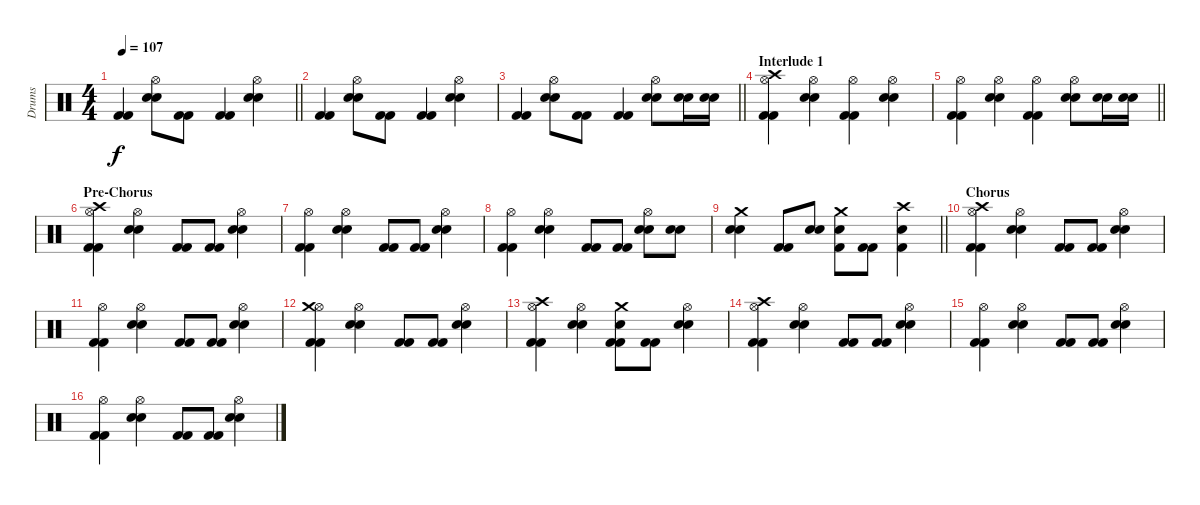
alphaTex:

\track ("Drums" "Drums") {instrument percussion}
\staff {score}
\articulation defaults
\ts (4 4)
\tempo 107
\clef neutral
\barLineRight lightlight
\ks c
("Kick (hit) 2" "Kick (hit) 2").4{dy f} ("Snare (hit) 2" "Snare (hit) 2" "Hi-Hat (open)").8 ("Kick (hit) 2" "Kick (hit) 2").8 ("Kick (hit) 2" "Kick (hit) 2").4 ("Snare (hit) 2" "Snare (hit) 2" "Hi-Hat (open)").4 |
("Kick (hit) 2" "Kick (hit) 2").4 ("Snare (hit) 2" "Snare (hit) 2" "Hi-Hat (open)").8 ("Kick (hit) 2" "Kick (hit) 2").8 ("Kick (hit) 2" "Kick (hit) 2").4 ("Snare (hit) 2" "Snare (hit) 2" "Hi-Hat (open)").4 |
\barLineRight lightlight
("Kick (hit) 2" "Kick (hit) 2").4 ("Snare (hit) 2" "Snare (hit) 2" "Hi-Hat (open)").8 ("Kick (hit) 2" "Kick (hit) 2").8 ("Kick (hit) 2" "Kick (hit) 2").4 ("Snare (hit) 2" "Snare (hit) 2" "Hi-Hat (open)").8 ("Snare (hit) 2" "Snare (hit) 2").16 ("Snare (hit) 2" "Snare (hit) 2").16 |
\section ("" "Interlude 1")
("Kick (hit) 2" "Kick (hit) 2" "Hi-Hat (open)" "Crash high (hit)").4 ("Snare (hit) 2" "Snare (hit) 2" "Hi-Hat (open)").4 ("Kick (hit) 2" "Kick (hit) 2" "Hi-Hat (open)").4 ("Snare (hit) 2" "Snare (hit) 2" "Hi-Hat (open)").4 |
\barLineRight lightlight
("Kick (hit) 2" "Kick (hit) 2" "Hi-Hat (open)").4 ("Snare (hit) 2" "Snare (hit) 2" "Hi-Hat (open)").4 ("Kick (hit) 2" "Kick (hit) 2" "Hi-Hat (open)").4 ("Snare (hit) 2" "Snare (hit) 2" "Hi-Hat (open)").8 ("Snare (hit) 2" "Snare (hit) 2").16 ("Snare (hit) 2" "Snare (hit) 2").16 |
\section ("" "Pre-Chorus")
("Kick (hit) 2" "Kick (hit) 2" "Hi-Hat (open)" "Crash high (hit)").4 ("Snare (hit) 2" "Snare (hit) 2" "Hi-Hat (open)").4 ("Kick (hit) 2" "Kick (hit) 2").8 ("Kick (hit) 2" "Kick (hit) 2").8 ("Snare (hit) 2" "Snare (hit) 2" "Hi-Hat (open)").4 |
("Kick (hit) 2" "Kick (hit) 2" "Hi-Hat (open)").4 ("Snare (hit) 2" "Snare (hit) 2" "Hi-Hat (open)").4 ("Kick (hit) 2" "Kick (hit) 2").8 ("Kick (hit) 2" "Kick (hit) 2").8 ("Snare (hit) 2" "Snare (hit) 2" "Hi-Hat (open)").4 |
("Kick (hit) 2" "Kick (hit) 2" "Hi-Hat (open)").4 ("Snare (hit) 2" "Snare (hit) 2" "Hi-Hat (open)").4 ("Kick (hit) 2" "Kick (hit) 2").8 ("Kick (hit) 2" "Kick (hit) 2").8 ("Snare (hit) 2" "Snare (hit) 2" "Hi-Hat (open)").8 ("Snare (hit) 2" "Snare (hit) 2").8 |
\barLineRight lightlight
("Snare (hit) 2" "Snare (hit) 2" "Crash medium (hit)").4 ("Kick (hit) 2" "Kick (hit) 2").8 ("Snare (hit) 2" "Snare (hit) 2").8 ("Kick (hit) 2" "Snare (hit) 2" "Crash medium (hit)").8 ("Kick (hit) 2" "Kick (hit) 2").8 ("Kick (hit) 2" "Snare (hit) 2" "Crash high (hit)").4 |
\section ("" "Chorus")
("Kick (hit) 2" "Kick (hit) 2" "Hi-Hat (open)" "Crash high (hit)").4 ("Snare (hit) 2" "Snare (hit) 2" "Hi-Hat (open)").4 ("Kick (hit) 2" "Kick (hit) 2").8 ("Kick (hit) 2" "Kick (hit) 2").8 ("Snare (hit) 2" "Snare (hit) 2" "Hi-Hat (open)").4 |
("Kick (hit) 2" "Kick (hit) 2" "Hi-Hat (open)").4 ("Snare (hit) 2" "Snare (hit) 2" "Hi-Hat (open)").4 ("Kick (hit) 2" "Kick (hit) 2").8 ("Kick (hit) 2" "Kick (hit) 2").8 ("Snare (hit) 2" "Snare (hit) 2" "Hi-Hat (open)").4 |
("Kick (hit) 2" "Kick (hit) 2" "Hi-Hat (open)" "Crash medium (hit)").4 ("Snare (hit) 2" "Snare (hit) 2" "Hi-Hat (open)").4 ("Kick (hit) 2" "Kick (hit) 2").8 ("Kick (hit) 2" "Kick (hit) 2").8 ("Snare (hit) 2" "Snare (hit) 2" "Hi-Hat (open)").4 |
("Kick (hit) 2" "Kick (hit) 2" "Hi-Hat (open)" "Crash high (hit)").4 ("Snare (hit) 2" "Snare (hit) 2" "Hi-Hat (open)").4 ("Kick (hit) 2" "Kick (hit) 2" "Crash medium (hit)" "Snare (hit) 2").8 ("Kick (hit) 2" "Kick (hit) 2").8 ("Snare (hit) 2" "Snare (hit) 2" "Hi-Hat (open)").4 |
("Kick (hit) 2" "Kick (hit) 2" "Hi-Hat (open)" "Crash high (hit)").4 ("Snare (hit) 2" "Snare (hit) 2" "Hi-Hat (open)").4 ("Kick (hit) 2" "Kick (hit) 2").8 ("Kick (hit) 2" "Kick (hit) 2").8 ("Snare (hit) 2" "Snare (hit) 2" "Hi-Hat (open)").4 |
("Kick (hit) 2" "Kick (hit) 2" "Hi-Hat (open)").4 ("Snare (hit) 2" "Snare (hit) 2" "Hi-Hat (open)").4 ("Kick (hit) 2" "Kick (hit) 2").8 ("Kick (hit) 2" "Kick (hit) 2").8 ("Snare (hit) 2" "Snare (hit) 2" "Hi-Hat (open)").4 |
("Kick (hit) 2" "Kick (hit) 2" "Hi-Hat (open)").4 ("Snare (hit) 2" "Snare (hit) 2" "Hi-Hat (open)").4 ("Kick (hit) 2" "Kick (hit) 2").8 ("Kick (hit) 2" "Kick (hit) 2").8 ("Snare (hit) 2" "Snare (hit) 2" "Hi-Hat (open)").4
